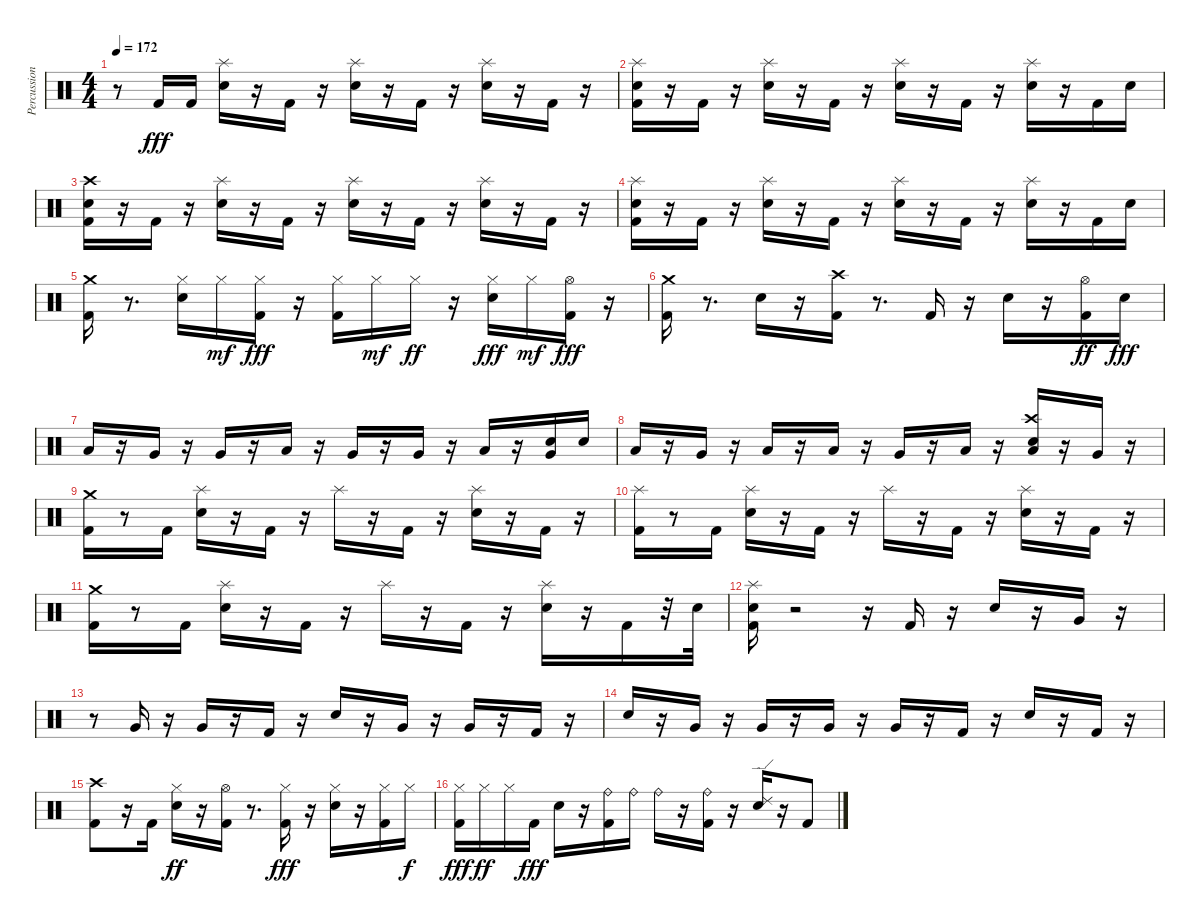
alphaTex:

\track ("Percussion" "Percussion") {instrument percussion}
\staff {score}
\articulation defaults
\ts (4 4)
\tempo 172
\clef neutral
\ks c
r.8{dy fff} "Kick (hit) 2".16 "Kick (hit) 2".16 ("Snare (hit) 2" "Splash (hit)").16 r.16 "Kick (hit) 2".16 r.16 ("Splash (hit)" "Snare (hit) 2").16 r.16 "Kick (hit) 2".16 r.16 ("Snare (hit) 2" "Splash (hit)").16 r.16 "Kick (hit) 2".16 r.16 |
("Snare (hit) 2" "Kick (hit) 2" "Splash (hit)").16 r.16 "Kick (hit) 2".16 r.16 ("Snare (hit) 2" "Splash (hit)").16 r.16 "Kick (hit) 2".16 r.16 ("Snare (hit) 2" "Splash (hit)").16 r.16 "Kick (hit) 2".16 r.16 ("Snare (hit) 2" "Splash (hit)").16 r.16 "Kick (hit) 2".16 "Snare (hit) 2".16 |
("Crash high (hit)" "Kick (hit) 2" "Snare (hit) 2").16 r.16 "Kick (hit) 2".16 r.16 ("Snare (hit) 2" "Splash (hit)").16 r.16 "Kick (hit) 2".16 r.16 ("Snare (hit) 2" "Splash (hit)").16 r.16 "Kick (hit) 2".16 r.16 ("Splash (hit)" "Snare (hit) 2").16 r.16 "Kick (hit) 2".16 r.16 |
("Snare (hit) 2" "Kick (hit) 2" "Splash (hit)").16 r.16 "Kick (hit) 2".16 r.16 ("Splash (hit)" "Snare (hit) 2").16 r.16 "Kick (hit) 2".16 r.16 ("Splash (hit)" "Snare (hit) 2").16 r.16 "Kick (hit) 2".16 r.16 ("Snare (hit) 2" "Splash (hit)").16 r.16 "Kick (hit) 2".16 "Snare (hit) 2".16 |
("Crash medium (hit)" "Kick (hit) 2").16 r.8{d} ("Snare (hit) 2" "Hi-Hat (closed)").16 "Hi-Hat (closed)".16{dy mf} ("Hi-Hat (closed)" "Kick (hit) 2").16{dy fff} r.16 ("Kick (hit) 2" "Hi-Hat (closed)").16 "Hi-Hat (closed)".16{dy mf} "Hi-Hat (closed)".16{dy ff} r.16 ("Snare (hit) 2" "Hi-Hat (closed)").16{dy fff} "Hi-Hat (closed)".16{dy mf} ("Hi-Hat (open)" "Kick (hit) 2").16{dy fff} r.16 |
("Crash medium (hit)" "Kick (hit) 2").16 r.8{d} "Snare (hit) 2".16 r.16 ("Kick (hit) 2" "Crash high (hit)").16 r.8{d} "Kick (hit) 2".16 r.16 "Snare (hit) 2".16 r.16 ("Kick (hit) 2" "Hi-Hat (open)").16{dy ff} "Snare (hit) 2".16{dy fff} |
"Low Tom (hit)".16 r.16 "Very Low Tom (hit)".16 r.16 "Very Low Tom (hit)".16 r.16 "Low Tom (hit)".16 r.16 "Very Low Tom (hit)".16 r.16 "Very Low Tom (hit)".16 r.16 "Low Tom (hit)".16 r.16 ("Very Low Tom (hit)" "Snare (hit) 2").16 "Snare (hit) 2".16 |
"Low Tom (hit)".16 r.16 "Very Low Tom (hit)".16 r.16 "Low Floor Tom (hit)".16 r.16 "Low Tom (hit)".16 r.16 "Very Low Tom (hit)".16 r.16 "Low Floor Tom (hit)".16 r.16 ("Low Tom (hit)" "Snare (hit) 2" "Crash high (hit)").16 r.16 "Very Low Tom (hit)".16 r.16 |
("Kick (hit) 2" "Crash medium (hit)").16 r.8 "Kick (hit) 2".16 ("Splash (hit)" "Snare (hit) 2").16 r.16 "Kick (hit) 2".16 r.16 "Splash (hit)".16 r.16 "Kick (hit) 2".16 r.16 ("Snare (hit) 2" "Splash (hit)").16 r.16 "Kick (hit) 2".16 r.16 |
("Kick (hit) 2" "Splash (hit)").16 r.8 "Kick (hit) 2".16 ("Snare (hit) 2" "Splash (hit)").16 r.16 "Kick (hit) 2".16 r.16 "Splash (hit)".16 r.16 "Kick (hit) 2".16 r.16 ("Snare (hit) 2" "Splash (hit)").16 r.16 "Kick (hit) 2".16 r.16 |
("Kick (hit) 2" "Crash medium (hit)").16 r.8 "Kick (hit) 2".16 ("Snare (hit) 2" "Splash (hit)").16 r.16 "Kick (hit) 2".16 r.16 "Splash (hit)".16 r.16 "Kick (hit) 2".16 r.16 ("Splash (hit)" "Snare (hit) 2").16 r.16 "Kick (hit) 2".16 r.32 "Snare (hit) 2".32 |
("Snare (hit) 2" "Splash (hit)" "Kick (hit) 2").16 r.2 r.16 "Kick (hit) 2".16 r.16 "Snare (hit) 2".16 r.16 "Very Low Tom (hit)".16 r.16 |
r.8 "Very Low Tom (hit)".16 r.16 "Very Low Tom (hit)".16 r.16 "Kick (hit) 2".16 r.16 "Snare (hit) 2".16 r.16 "Very Low Tom (hit)".16 r.16 "Very Low Tom (hit)".16 r.16 "Kick (hit) 2".16 r.16 |
"Snare (hit) 2".16 r.16 "Very Low Tom (hit)".16 r.16 "Very Low Tom (hit)".16 r.16 "Very Low Tom (hit)".16 r.16 "Very Low Tom (hit)".16 r.16 "Kick (hit) 2".16 r.16 "Snare (hit) 2".16 r.16 "Kick (hit) 2".16 r.16 |
("Kick (hit) 2" "Crash high (hit)").8 r.16 "Kick (hit) 2".16 ("Snare (hit) 2" "Hi-Hat (closed)").16{dy ff} r.16 ("Kick (hit) 2" "Hi-Hat (open)").16 r.8{d} ("Hi-Hat (closed)" "Kick (hit) 2").16{dy fff} r.16 ("Hi-Hat (closed)" "Snare (hit) 2").16 r.16 ("Kick (hit) 2" "Hi-Hat (closed)").16 "Hi-Hat (closed)".16{dy f} |
("Hi-Hat (closed)" "Kick (hit) 2").16{dy fff} "Hi-Hat (closed)".16{dy ff} "Hi-Hat (closed)".16 "Kick (hit) 2".16{dy fff} "Snare (hit) 2".16 r.16 ("Ride (bell)" "Kick (hit) 2").16 "Ride (bell)".16 "Ride (bell)".16 r.16 ("Ride (bell)" "Kick (hit) 2").16 r.16 ("Ride (edge) 2" "Snare (hit) 2").16 r.16 "Kick (hit) 2".8
